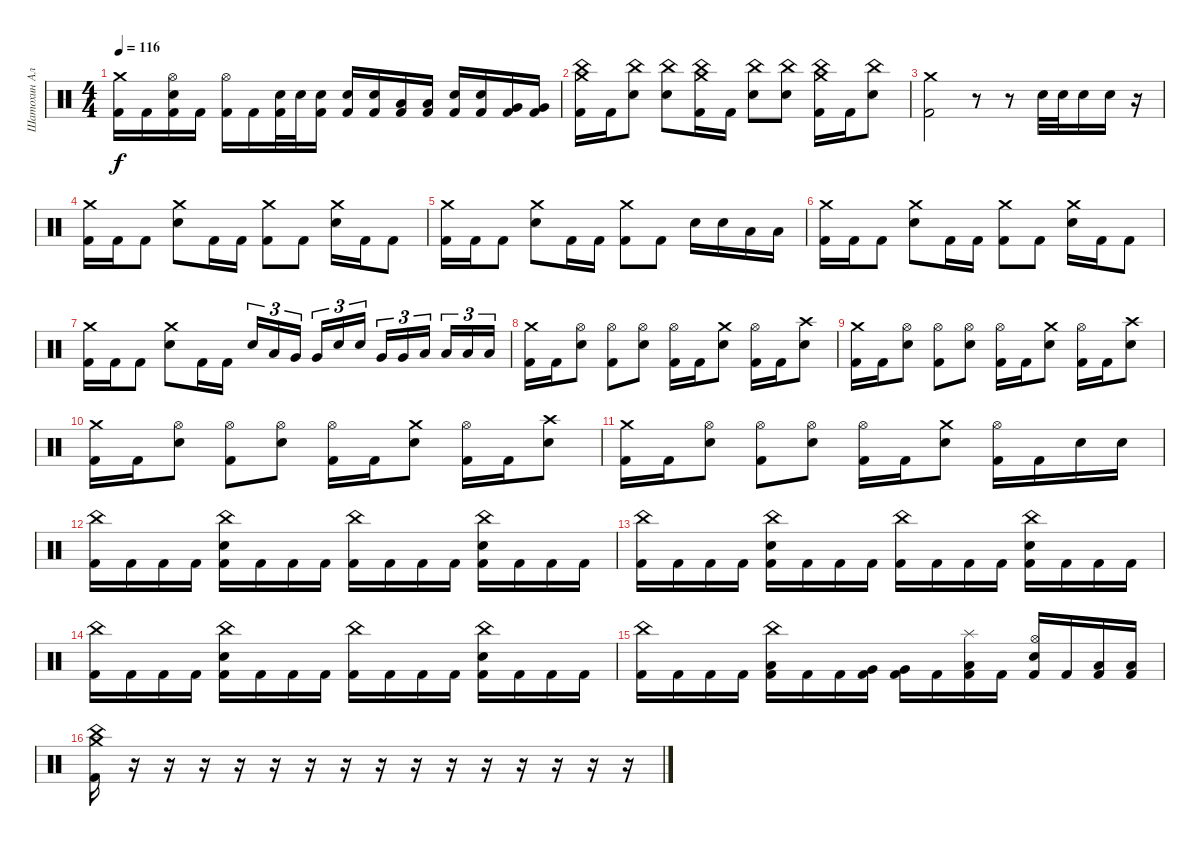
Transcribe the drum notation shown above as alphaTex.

\track ("Шатохин Алексей" "Шатохин Ал") {instrument percussion}
\staff {score}
\articulation defaults
\ts (4 4)
\tempo 116
\clef neutral
\ks c
("Crash medium (hit)" "Kick (hit) 2").16{dy f} "Kick (hit) 2".16 ("Hi-Hat (open)" "Electric Snare (hit)" "Kick (hit) 2").16 "Kick (hit) 2".16 ("Hi-Hat (open)" "Kick (hit) 2").16 "Kick (hit) 2".16 ("Electric Snare (hit)" "Kick (hit) 2").32 "Electric Snare (hit)".32 ("Electric Snare (hit)" "Kick (hit) 2").16 ("Electric Snare (hit)" "Kick (hit) 2").16 ("Electric Snare (hit)" "Kick (hit) 2").16 ("Low Tom (hit)" "Kick (hit) 2").16 ("Low Tom (hit)" "Kick (hit) 2").16 ("Electric Snare (hit)" "Kick (hit) 2").16 ("Electric Snare (hit)" "Kick (hit) 2").16 ("Very Low Tom (hit)" "Kick (hit) 2").16 ("Very Low Tom (hit)" "Kick (hit) 2").16 |
("China (hit)" "Crash medium (hit)" "Kick (hit) 2").16 "Kick (hit) 2".16 ("China (hit)" "Electric Snare (hit)").8 ("China (hit)" "Electric Snare (hit)").8 ("China (hit)" "Crash medium (hit)" "Kick (hit) 2").16 "Kick (hit) 2".16 ("China (hit)" "Electric Snare (hit)").8 ("China (hit)" "Electric Snare (hit)").8 ("China (hit)" "Crash medium (hit)" "Kick (hit) 2").16 "Kick (hit) 2".16 ("China (hit)" "Electric Snare (hit)").8 |
("Crash medium (hit)" "Kick (hit) 2").2 r.8 r.8 "Electric Snare (hit)".32 "Electric Snare (hit)".32 "Electric Snare (hit)".16 "Electric Snare (hit)".16 r.16 |
("Crash medium (hit)" "Kick (hit) 2").16 "Kick (hit) 2".16 "Kick (hit) 2".8 ("Crash medium (hit)" "Electric Snare (hit)").8 "Kick (hit) 2".16 "Kick (hit) 2".16 ("Crash medium (hit)" "Kick (hit) 2").8 "Kick (hit) 2".8 ("Crash medium (hit)" "Electric Snare (hit)").16 "Kick (hit) 2".16 "Kick (hit) 2".8 |
("Crash medium (hit)" "Kick (hit) 2").16 "Kick (hit) 2".16 "Kick (hit) 2".8 ("Crash medium (hit)" "Electric Snare (hit)").8 "Kick (hit) 2".16 "Kick (hit) 2".16 ("Crash medium (hit)" "Kick (hit) 2").8 "Kick (hit) 2".8 "Electric Snare (hit)".16 "Electric Snare (hit)".16 "Low Tom (hit)".16 "Low Tom (hit)".16 |
("Crash medium (hit)" "Kick (hit) 2").16 "Kick (hit) 2".16 "Kick (hit) 2".8 ("Crash medium (hit)" "Electric Snare (hit)").8 "Kick (hit) 2".16 "Kick (hit) 2".16 ("Crash medium (hit)" "Kick (hit) 2").8 "Kick (hit) 2".8 ("Crash medium (hit)" "Electric Snare (hit)").16 "Kick (hit) 2".16 "Kick (hit) 2".8 |
("Crash medium (hit)" "Kick (hit) 2").16 "Kick (hit) 2".16 "Kick (hit) 2".8 ("Crash medium (hit)" "Electric Snare (hit)").8 "Kick (hit) 2".16 "Kick (hit) 2".16 "Electric Snare (hit)".16{tu (3 2)} "Low Tom (hit)".16{tu (3 2)} "Very Low Tom (hit)".16{tu (3 2) beam splitsecondary} "Very Low Tom (hit)".16{tu (3 2)} "Electric Snare (hit)".16{tu (3 2)} "Electric Snare (hit)".16{tu (3 2)} "Very Low Tom (hit)".16{tu (3 2)} "Very Low Tom (hit)".16{tu (3 2)} "Low Floor Tom (hit)".16{tu (3 2) beam splitsecondary} "Low Floor Tom (hit)".16{tu (3 2)} "Low Floor Tom (hit)".16{tu (3 2)} "Low Floor Tom (hit)".16{tu (3 2)} |
("Crash medium (hit)" "Kick (hit) 2").16 "Kick (hit) 2".16 ("Hi-Hat (open)" "Electric Snare (hit)").8 ("Hi-Hat (open)" "Kick (hit) 2").8 ("Hi-Hat (open)" "Electric Snare (hit)").8 ("Hi-Hat (open)" "Kick (hit) 2").16 "Kick (hit) 2".16 ("Crash medium (hit)" "Electric Snare (hit)").8 ("Hi-Hat (open)" "Kick (hit) 2").16 "Kick (hit) 2".16 ("Crash high (hit)" "Electric Snare (hit)").8 |
("Crash medium (hit)" "Kick (hit) 2").16 "Kick (hit) 2".16 ("Hi-Hat (open)" "Electric Snare (hit)").8 ("Hi-Hat (open)" "Kick (hit) 2").8 ("Hi-Hat (open)" "Electric Snare (hit)").8 ("Hi-Hat (open)" "Kick (hit) 2").16 "Kick (hit) 2".16 ("Crash medium (hit)" "Electric Snare (hit)").8 ("Hi-Hat (open)" "Kick (hit) 2").16 "Kick (hit) 2".16 ("Crash high (hit)" "Electric Snare (hit)").8 |
("Crash medium (hit)" "Kick (hit) 2").16 "Kick (hit) 2".16 ("Hi-Hat (open)" "Electric Snare (hit)").8 ("Hi-Hat (open)" "Kick (hit) 2").8 ("Hi-Hat (open)" "Electric Snare (hit)").8 ("Hi-Hat (open)" "Kick (hit) 2").16 "Kick (hit) 2".16 ("Crash medium (hit)" "Electric Snare (hit)").8 ("Hi-Hat (open)" "Kick (hit) 2").16 "Kick (hit) 2".16 ("Crash high (hit)" "Electric Snare (hit)").8 |
("Crash medium (hit)" "Kick (hit) 2").16 "Kick (hit) 2".16 ("Hi-Hat (open)" "Electric Snare (hit)").8 ("Hi-Hat (open)" "Kick (hit) 2").8 ("Hi-Hat (open)" "Electric Snare (hit)").8 ("Hi-Hat (open)" "Kick (hit) 2").16 "Kick (hit) 2".16 ("Crash medium (hit)" "Electric Snare (hit)").8 ("Hi-Hat (open)" "Kick (hit) 2").16 "Kick (hit) 2".16 "Electric Snare (hit)".16 "Electric Snare (hit)".16 |
("China (hit)" "Kick (hit) 2").16 "Kick (hit) 2".16 "Kick (hit) 2".16 "Kick (hit) 2".16 ("China (hit)" "Electric Snare (hit)" "Kick (hit) 2").16 "Kick (hit) 2".16 "Kick (hit) 2".16 "Kick (hit) 2".16 ("China (hit)" "Kick (hit) 2").16 "Kick (hit) 2".16 "Kick (hit) 2".16 "Kick (hit) 2".16 ("China (hit)" "Electric Snare (hit)" "Kick (hit) 2").16 "Kick (hit) 2".16 "Kick (hit) 2".16 "Kick (hit) 2".16 |
("China (hit)" "Kick (hit) 2").16 "Kick (hit) 2".16 "Kick (hit) 2".16 "Kick (hit) 2".16 ("China (hit)" "Electric Snare (hit)" "Kick (hit) 2").16 "Kick (hit) 2".16 "Kick (hit) 2".16 "Kick (hit) 2".16 ("China (hit)" "Kick (hit) 2").16 "Kick (hit) 2".16 "Kick (hit) 2".16 "Kick (hit) 2".16 ("China (hit)" "Electric Snare (hit)" "Kick (hit) 2").16 "Kick (hit) 2".16 "Kick (hit) 2".16 "Kick (hit) 2".16 |
("China (hit)" "Kick (hit) 2").16 "Kick (hit) 2".16 "Kick (hit) 2".16 "Kick (hit) 2".16 ("China (hit)" "Electric Snare (hit)" "Kick (hit) 2").16 "Kick (hit) 2".16 "Kick (hit) 2".16 "Kick (hit) 2".16 ("China (hit)" "Kick (hit) 2").16 "Kick (hit) 2".16 "Kick (hit) 2".16 "Kick (hit) 2".16 ("China (hit)" "Electric Snare (hit)" "Kick (hit) 2").16 "Kick (hit) 2".16 "Kick (hit) 2".16 "Kick (hit) 2".16 |
("China (hit)" "Kick (hit) 2").16 "Kick (hit) 2".16 "Kick (hit) 2".16 "Kick (hit) 2".16 ("China (hit)" "Low Tom (hit)" "Kick (hit) 2").16 "Kick (hit) 2".16 "Kick (hit) 2".16 ("Very Low Tom (hit)" "Kick (hit) 2").16 ("Very Low Tom (hit)" "Kick (hit) 2").16 "Kick (hit) 2".16 ("Splash (hit)" "Low Floor Tom (hit)" "Kick (hit) 2").16 "Kick (hit) 2".16 ("Hi-Hat (open)" "Electric Snare (hit)" "Kick (hit) 2").16 "Kick (hit) 2".16 ("Low Floor Tom (hit)" "Kick (hit) 2").16 ("Low Floor Tom (hit)" "Kick (hit) 2").16 |
("Crash medium (hit)" "China (hit)" "Kick (hit) 2").16 r.16 r.16 r.16 r.16 r.16 r.16 r.16 r.16 r.16 r.16 r.16 r.16 r.16 r.16 r.16
